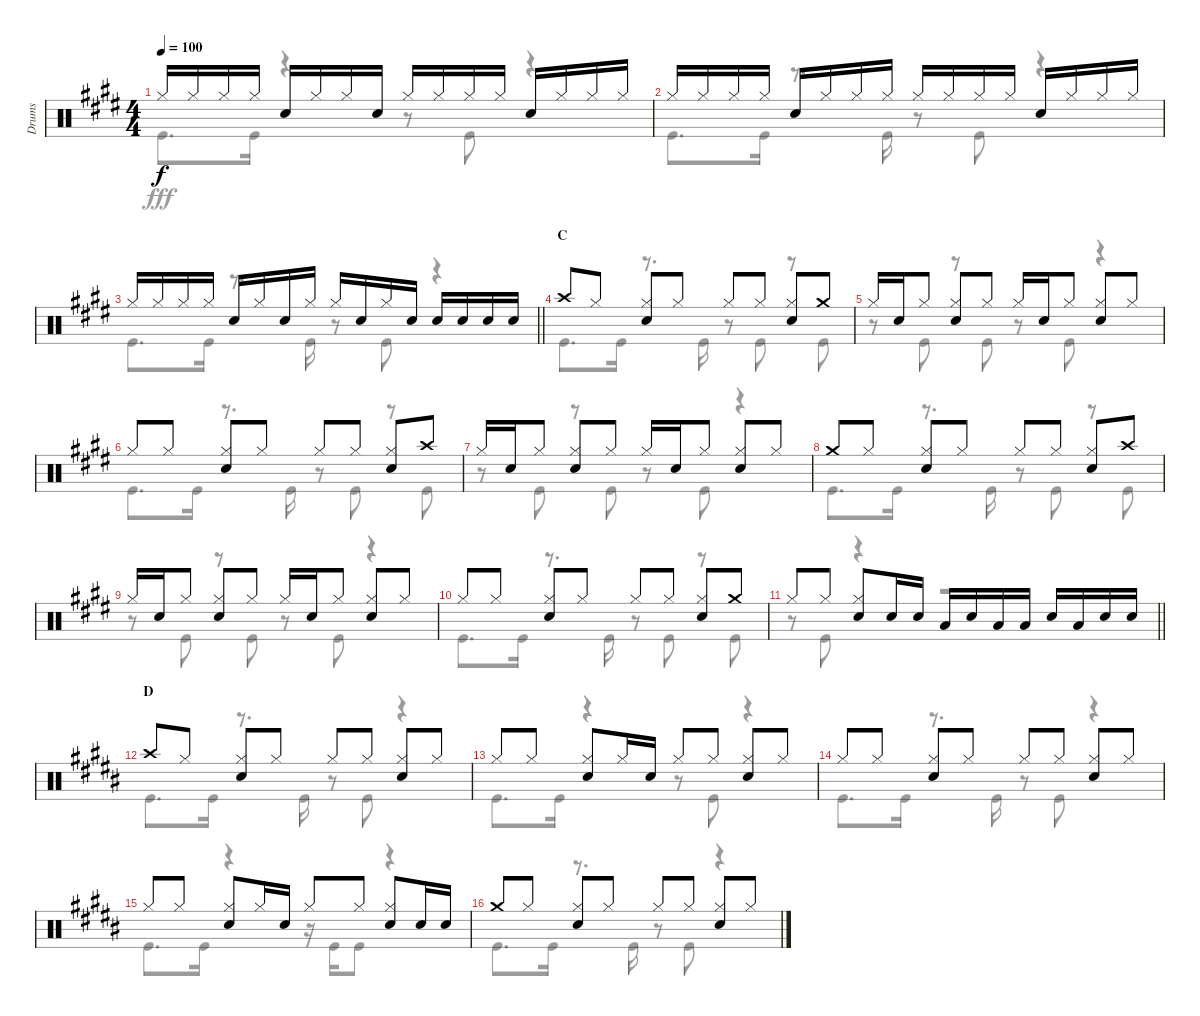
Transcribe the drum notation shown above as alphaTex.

\track ("Drums" "Drums") {instrument percussion}
\staff {score}
\articulation defaults
\voice
\ts (4 4)
\tempo 100
\clef neutral
\ks e "Hi-Hat (closed)".16{dy f} "Hi-Hat (closed)".16 "Hi-Hat (closed)".16 "Hi-Hat (closed)".16 "Snare (hit) 2".16 "Hi-Hat (closed)".16 "Hi-Hat (closed)".16 "Snare (hit) 2".16 "Hi-Hat (closed)".16 "Hi-Hat (closed)".16 "Hi-Hat (closed)".16 "Hi-Hat (closed)".16 "Snare (hit) 2".16 "Hi-Hat (closed)".16 "Hi-Hat (closed)".16 "Hi-Hat (closed)".16
|
"Hi-Hat (closed)".16 "Hi-Hat (closed)".16 "Hi-Hat (closed)".16 "Hi-Hat (closed)".16 "Snare (hit) 2".16 "Hi-Hat (closed)".16 "Hi-Hat (closed)".16 "Hi-Hat (closed)".16 "Hi-Hat (closed)".16 "Hi-Hat (closed)".16 "Hi-Hat (closed)".16 "Hi-Hat (closed)".16 "Snare (hit) 2".16 "Hi-Hat (closed)".16 "Hi-Hat (closed)".16 "Hi-Hat (closed)".16 |
\barLineRight lightlight "Hi-Hat (closed)".16 "Hi-Hat (closed)".16 "Hi-Hat (closed)".16 "Hi-Hat (closed)".16 "Snare (hit) 2".16 "Hi-Hat (closed)".16 "Snare (hit) 2".16 "Hi-Hat (closed)".16 "Hi-Hat (closed)".16 "Snare (hit) 2".16 "Hi-Hat (closed)".16 "Snare (hit) 2".16 "Snare (hit) 2".16 "Snare (hit) 2".16 "Snare (hit) 2".16 "Snare (hit) 2".16
|
\section ("" "C")
"Crash high (hit)".8 "Hi-Hat (closed)".8 ("Hi-Hat (closed)" "Snare (hit) 2").8 "Hi-Hat (closed)".8 "Hi-Hat (closed)".8 "Hi-Hat (closed)".8 ("Hi-Hat (closed)" "Snare (hit) 2").8 "Crash medium (hit)".8 |
"Hi-Hat (closed)".16 "Snare (hit) 2".16 "Hi-Hat (closed)".8 ("Hi-Hat (closed)" "Snare (hit) 2").8 "Hi-Hat (closed)".8 "Hi-Hat (closed)".16 "Snare (hit) 2".16 "Hi-Hat (closed)".8 ("Hi-Hat (closed)" "Snare (hit) 2").8 "Hi-Hat (closed)".8 |
"Hi-Hat (closed)".8 "Hi-Hat (closed)".8 ("Hi-Hat (closed)" "Snare (hit) 2").8 "Hi-Hat (closed)".8 "Hi-Hat (closed)".8 "Hi-Hat (closed)".8 ("Hi-Hat (closed)" "Snare (hit) 2").8 "Crash high (hit)".8 |
"Hi-Hat (closed)".16 "Snare (hit) 2".16 "Hi-Hat (closed)".8 ("Hi-Hat (closed)" "Snare (hit) 2").8 "Hi-Hat (closed)".8 "Hi-Hat (closed)".16 "Snare (hit) 2".16 "Hi-Hat (closed)".8 ("Hi-Hat (closed)" "Snare (hit) 2").8 "Hi-Hat (closed)".8 |
"Crash medium (hit)".8 "Hi-Hat (closed)".8 ("Hi-Hat (closed)" "Snare (hit) 2").8 "Hi-Hat (closed)".8 "Hi-Hat (closed)".8 "Hi-Hat (closed)".8 ("Hi-Hat (closed)" "Snare (hit) 2").8 "Crash high (hit)".8 |
"Hi-Hat (closed)".16 "Snare (hit) 2".16 "Hi-Hat (closed)".8 ("Hi-Hat (closed)" "Snare (hit) 2").8 "Hi-Hat (closed)".8 "Hi-Hat (closed)".16 "Snare (hit) 2".16 "Hi-Hat (closed)".8 ("Hi-Hat (closed)" "Snare (hit) 2").8 "Hi-Hat (closed)".8 |
"Hi-Hat (closed)".8 "Hi-Hat (closed)".8 ("Hi-Hat (closed)" "Snare (hit) 2").8 "Hi-Hat (closed)".8 "Hi-Hat (closed)".8 "Hi-Hat (closed)".8 ("Hi-Hat (closed)" "Snare (hit) 2").8 "Crash medium (hit)".8 |
\barLineRight lightlight "Hi-Hat (closed)".8 "Hi-Hat (closed)".8
("Hi-Hat (closed)" "Snare (hit) 2").8 "Snare (hit) 2".16 "Snare (hit) 2".16 "Low Tom (hit)".16 "Snare (hit) 2".16 "Low Tom (hit)".16 "Low Tom (hit)".16 "Snare (hit) 2".16 "Low Tom (hit)".16 "Snare (hit) 2".16 "Snare (hit) 2".16 |
\section ("" "D")
\ks b "Crash high (hit)".8 "Hi-Hat (closed)".8
("Hi-Hat (closed)" "Snare (hit) 2").8 "Hi-Hat (closed)".8 "Hi-Hat (closed)".8 "Hi-Hat (closed)".8 ("Hi-Hat (closed)" "Snare (hit) 2").8 "Hi-Hat (closed)".8 |
"Hi-Hat (closed)".8 "Hi-Hat (closed)".8 ("Hi-Hat (closed)" "Snare (hit) 2").8 "Hi-Hat (closed)".16 "Snare (hit) 2".16 "Hi-Hat (closed)".8 "Hi-Hat (closed)".8 ("Hi-Hat (closed)" "Snare (hit) 2").8 "Hi-Hat (closed)".8 |
"Hi-Hat (closed)".8 "Hi-Hat (closed)".8 ("Hi-Hat (closed)" "Snare (hit) 2").8 "Hi-Hat (closed)".8 "Hi-Hat (closed)".8 "Hi-Hat (closed)".8 ("Hi-Hat (closed)" "Snare (hit) 2").8 "Hi-Hat (closed)".8 |
"Hi-Hat (closed)".8 "Hi-Hat (closed)".8 ("Hi-Hat (closed)" "Snare (hit) 2").8 "Hi-Hat (closed)".16 "Snare (hit) 2".16 "Hi-Hat (closed)".8 "Hi-Hat (closed)".8 ("Hi-Hat (closed)" "Snare (hit) 2").8 "Snare (hit) 2".16 "Snare (hit) 2".16 |
"Crash medium (hit)".8 "Hi-Hat (closed)".8 ("Hi-Hat (closed)" "Snare (hit) 2").8 "Hi-Hat (closed)".8 "Hi-Hat (closed)".8 "Hi-Hat (closed)".8 ("Hi-Hat (closed)" "Snare (hit) 2").8 "Hi-Hat (closed)".8
\voice
\clef neutral
\ottava regular
\simile none
\ks e "Kick (hit)".8{d dy fff} "Kick (hit)".16
r.4 r.8 "Kick (hit)".8 r.4 |
"Kick (hit)".8{d} "Kick (hit)".16 r.8{d} "Kick (hit)".16 r.8 "Kick (hit)".8 r.4 |
\barLineRight lightlight "Kick (hit)".8{d} "Kick (hit)".16
r.8{d} "Kick (hit)".16 r.8 "Kick (hit)".8 r.4 |
"Kick (hit)".8{d} "Kick (hit)".16 r.8{d} "Kick (hit)".16 r.8 "Kick (hit)".8 r.8 "Kick (hit)".8 |
r.8 "Kick (hit)".8 r.8 "Kick (hit)".8 r.8 "Kick (hit)".8 r.4 |
"Kick (hit)".8{d} "Kick (hit)".16 r.8{d} "Kick (hit)".16 r.8 "Kick (hit)".8 r.8 "Kick (hit)".8 |
r.8 "Kick (hit)".8 r.8 "Kick (hit)".8 r.8 "Kick (hit)".8 r.4 |
"Kick (hit)".8{d} "Kick (hit)".16 r.8{d} "Kick (hit)".16 r.8 "Kick (hit)".8 r.8 "Kick (hit)".8 |
r.8 "Kick (hit)".8 r.8 "Kick (hit)".8 r.8 "Kick (hit)".8 r.4 |
"Kick (hit)".8{d} "Kick (hit)".16 r.8{d} "Kick (hit)".16 r.8 "Kick (hit)".8 r.8 "Kick (hit)".8 |
\barLineRight lightlight
r.8 "Kick (hit)".8 r.4 r.2 |
\ks b "Kick (hit)".8{d} "Kick (hit)".16
r.8{d} "Kick (hit)".16 r.8 "Kick (hit)".8 r.4 |
"Kick (hit)".8{d} "Kick (hit)".16 r.4 r.8 "Kick (hit)".8 r.4 |
"Kick (hit)".8{d} "Kick (hit)".16 r.8{d} "Kick (hit)".16 r.8 "Kick (hit)".8 r.4 |
"Kick (hit)".8{d} "Kick (hit)".16 r.4 r.16 "Kick (hit)".16 "Kick (hit)".8 r.4 |
"Kick (hit)".8{d} "Kick (hit)".16 r.8{d} "Kick (hit)".16 r.8 "Kick (hit)".8 r.4
